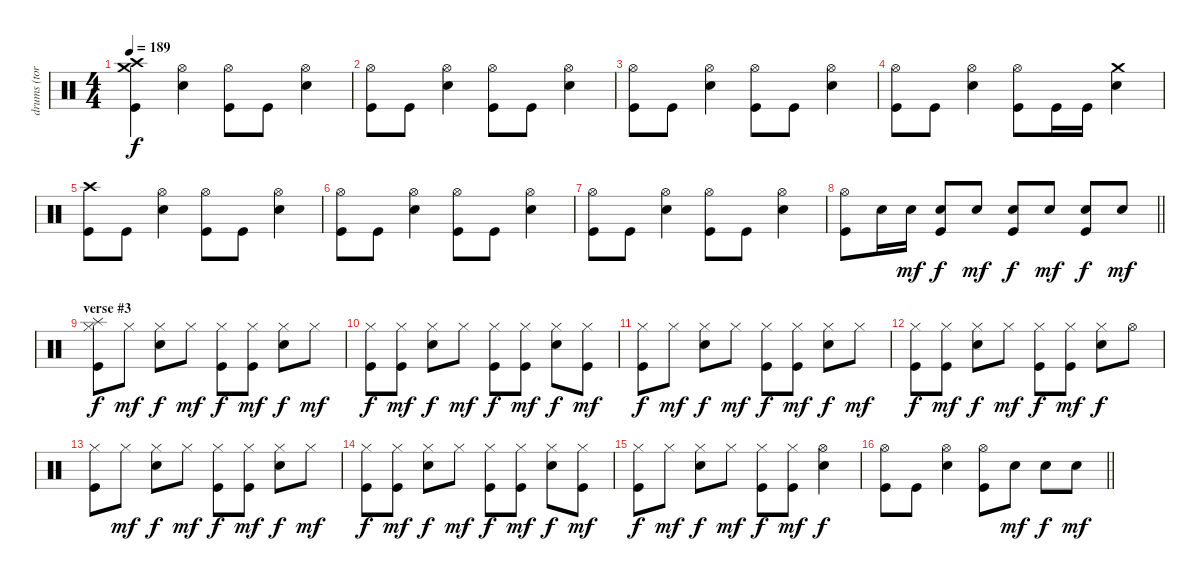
\track ("drums (tora)" "drums (tor") {instrument percussion}
\staff {score}
\articulation defaults
\ts (4 4)
\tempo 189
\clef neutral
\ks c
("Crash high (hit)" "Crash medium (hit)" "Kick (hit)").4{dy f} ("Hi-Hat (open)" "Snare (hit) 2").4 ("Hi-Hat (open)" "Kick (hit)").8 "Kick (hit)".8 ("Hi-Hat (open)" "Snare (hit) 2").4 |
("Hi-Hat (open)" "Kick (hit)").8 "Kick (hit)".8 ("Hi-Hat (open)" "Snare (hit) 2").4 ("Hi-Hat (open)" "Kick (hit)").8 "Kick (hit)".8 ("Hi-Hat (open)" "Snare (hit) 2").4 |
("Hi-Hat (open)" "Kick (hit)").8 "Kick (hit)".8 ("Hi-Hat (open)" "Snare (hit) 2").4 ("Hi-Hat (open)" "Kick (hit)").8 "Kick (hit)".8 ("Hi-Hat (open)" "Snare (hit) 2").4 |
("Hi-Hat (open)" "Kick (hit)").8 "Kick (hit)".8 ("Hi-Hat (open)" "Snare (hit) 2").4 ("Hi-Hat (open)" "Kick (hit)").8 "Kick (hit)".16 "Kick (hit)".16 ("Crash medium (hit)" "Snare (hit) 2").4 |
("Crash high (hit)" "Kick (hit)").8 "Kick (hit)".8 ("Hi-Hat (open)" "Snare (hit) 2").4 ("Hi-Hat (open)" "Kick (hit)").8 "Kick (hit)".8 ("Hi-Hat (open)" "Snare (hit) 2").4 |
("Hi-Hat (open)" "Kick (hit)").8 "Kick (hit)".8 ("Hi-Hat (open)" "Snare (hit) 2").4 ("Hi-Hat (open)" "Kick (hit)").8 "Kick (hit)".8 ("Hi-Hat (open)" "Snare (hit) 2").4 |
("Hi-Hat (open)" "Kick (hit)").8 "Kick (hit)".8 ("Hi-Hat (open)" "Snare (hit) 2").4 ("Hi-Hat (open)" "Kick (hit)").8 "Kick (hit)".8 ("Hi-Hat (open)" "Snare (hit) 2").4 |
\barLineRight lightlight
("Hi-Hat (open)" "Kick (hit)").8 "Snare (hit) 2".16 "Snare (hit) 2".16{dy mf} ("Snare (hit) 2" "Kick (hit)").8{dy f} "Snare (hit) 2".8{dy mf} ("Snare (hit) 2" "Kick (hit)").8{dy f} "Snare (hit) 2".8{dy mf} ("Snare (hit) 2" "Kick (hit)").8{dy f} "Snare (hit) 2".8{dy mf} |
\section ("" "verse #3")
("Splash (hit)" "Hi-Hat (closed)" "Kick (hit)").8{dy f} "Hi-Hat (closed)".8{dy mf} ("Hi-Hat (closed)" "Snare (hit) 2").8{dy f} "Hi-Hat (closed)".8{dy mf} ("Hi-Hat (closed)" "Kick (hit)").8{dy f} ("Hi-Hat (closed)" "Kick (hit)").8{dy mf} ("Hi-Hat (closed)" "Snare (hit) 2").8{dy f} "Hi-Hat (closed)".8{dy mf} |
("Hi-Hat (closed)" "Kick (hit)").8{dy f} ("Hi-Hat (closed)" "Kick (hit)").8{dy mf} ("Hi-Hat (closed)" "Snare (hit) 2").8{dy f} "Hi-Hat (closed)".8{dy mf} ("Hi-Hat (closed)" "Kick (hit)").8{dy f} ("Hi-Hat (closed)" "Kick (hit)").8{dy mf} ("Hi-Hat (closed)" "Snare (hit) 2").8{dy f} ("Hi-Hat (closed)" "Kick (hit)").8{dy mf} |
("Hi-Hat (closed)" "Kick (hit)").8{dy f} "Hi-Hat (closed)".8{dy mf} ("Hi-Hat (closed)" "Snare (hit) 2").8{dy f} "Hi-Hat (closed)".8{dy mf} ("Hi-Hat (closed)" "Kick (hit)").8{dy f} ("Hi-Hat (closed)" "Kick (hit)").8{dy mf} ("Hi-Hat (closed)" "Snare (hit) 2").8{dy f} "Hi-Hat (closed)".8{dy mf} |
("Hi-Hat (closed)" "Kick (hit)").8{dy f} ("Hi-Hat (closed)" "Kick (hit)").8{dy mf} ("Hi-Hat (closed)" "Snare (hit) 2").8{dy f} "Hi-Hat (closed)".8{dy mf} ("Hi-Hat (closed)" "Kick (hit)").8{dy f} ("Hi-Hat (closed)" "Kick (hit)").8{dy mf} ("Hi-Hat (closed)" "Snare (hit) 2").8{dy f} "Hi-Hat (open)".8 |
("Hi-Hat (closed)" "Kick (hit)").8 "Hi-Hat (closed)".8{dy mf} ("Hi-Hat (closed)" "Snare (hit) 2").8{dy f} "Hi-Hat (closed)".8{dy mf} ("Hi-Hat (closed)" "Kick (hit)").8{dy f} ("Hi-Hat (closed)" "Kick (hit)").8{dy mf} ("Hi-Hat (closed)" "Snare (hit) 2").8{dy f} "Hi-Hat (closed)".8{dy mf} |
("Hi-Hat (closed)" "Kick (hit)").8{dy f} ("Hi-Hat (closed)" "Kick (hit)").8{dy mf} ("Hi-Hat (closed)" "Snare (hit) 2").8{dy f} "Hi-Hat (closed)".8{dy mf} ("Hi-Hat (closed)" "Kick (hit)").8{dy f} ("Hi-Hat (closed)" "Kick (hit)").8{dy mf} ("Hi-Hat (closed)" "Snare (hit) 2").8{dy f} ("Hi-Hat (closed)" "Kick (hit)").8{dy mf} |
("Hi-Hat (closed)" "Kick (hit)").8{dy f} "Hi-Hat (closed)".8{dy mf} ("Hi-Hat (closed)" "Snare (hit) 2").8{dy f} "Hi-Hat (closed)".8{dy mf} ("Hi-Hat (closed)" "Kick (hit)").8{dy f} ("Hi-Hat (closed)" "Kick (hit)").8{dy mf} ("Hi-Hat (open)" "Snare (hit) 2").4{dy f} |
\barLineRight lightlight
("Hi-Hat (open)" "Kick (hit)").8 "Kick (hit)".8 ("Hi-Hat (open)" "Snare (hit) 2").4 ("Hi-Hat (open)" "Kick (hit)").8 "Snare (hit) 2".8{dy mf} "Snare (hit) 2".8{dy f} "Snare (hit) 2".8{dy mf}
